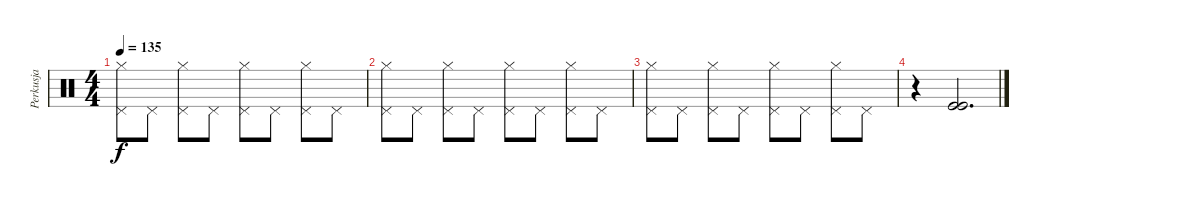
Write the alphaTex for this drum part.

\track ("Perkusja" "Perkusja") {instrument percussion}
\staff {score}
\articulation defaults
\ts (4 4)
\tempo 135
\clef neutral
\ks c
("Pedal Hi-Hat (hit)" "Hi-Hat (closed)").8{dy f} "Pedal Hi-Hat (hit)".8 ("Pedal Hi-Hat (hit)" "Hi-Hat (closed)").8 "Pedal Hi-Hat (hit)".8 ("Pedal Hi-Hat (hit)" "Hi-Hat (closed)").8 "Pedal Hi-Hat (hit)".8 ("Pedal Hi-Hat (hit)" "Hi-Hat (closed)").8 "Pedal Hi-Hat (hit)".8 |
("Pedal Hi-Hat (hit)" "Hi-Hat (closed)").8 "Pedal Hi-Hat (hit)".8 ("Pedal Hi-Hat (hit)" "Hi-Hat (closed)").8 "Pedal Hi-Hat (hit)".8 ("Pedal Hi-Hat (hit)" "Hi-Hat (closed)").8 "Pedal Hi-Hat (hit)".8 ("Pedal Hi-Hat (hit)" "Hi-Hat (closed)").8 "Pedal Hi-Hat (hit)".8 |
("Pedal Hi-Hat (hit)" "Hi-Hat (closed)").8 "Pedal Hi-Hat (hit)".8 ("Pedal Hi-Hat (hit)" "Hi-Hat (closed)").8 "Pedal Hi-Hat (hit)".8 ("Pedal Hi-Hat (hit)" "Hi-Hat (closed)").8 "Pedal Hi-Hat (hit)".8 ("Pedal Hi-Hat (hit)" "Hi-Hat (closed)").8 "Pedal Hi-Hat (hit)".8 |
r.4 ("Kick (hit)" "Kick (hit)").2{d}
